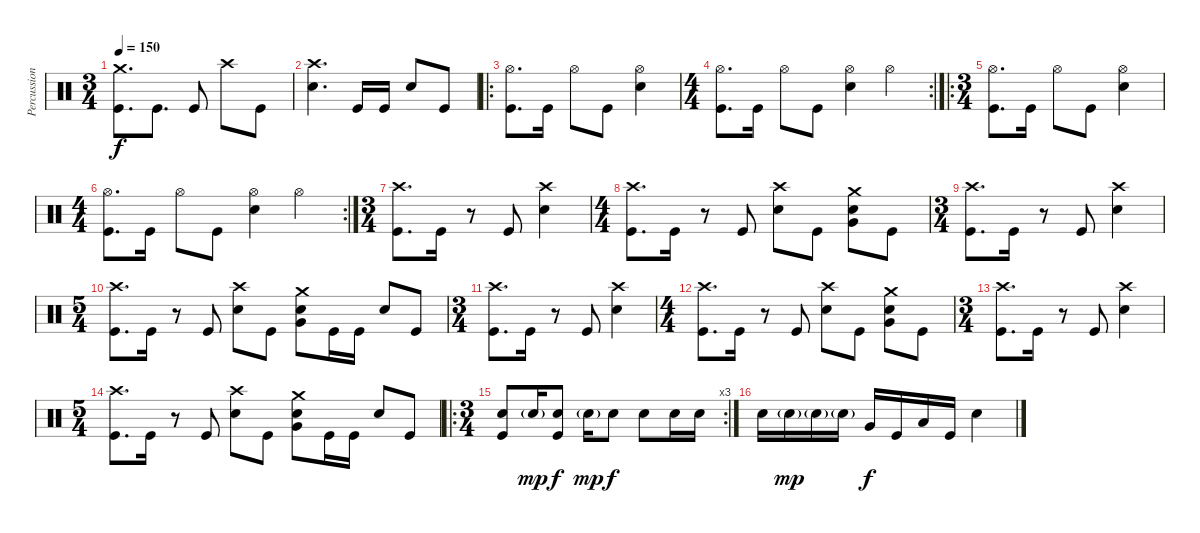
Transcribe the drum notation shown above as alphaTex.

\track ("Percussion" "Percussion") {instrument percussion}
\staff {score}
\articulation defaults
\ts (3 4)
\tempo 150
\clef neutral
\ks c
("Crash medium (hit)" "Kick (hit)").8{d dy f} "Kick (hit)".8{d} "Kick (hit)".8 "Crash high (hit)".8 "Kick (hit)".8 |
("Crash high (hit)" "Snare (hit) 2").4{d} "Kick (hit)".16 "Kick (hit)".16 "Snare (hit) 2".8 "Kick (hit)".8 |
\ro
("Hi-Hat (open)" "Kick (hit)").8{d} "Kick (hit)".16 "Hi-Hat (open)".8 "Kick (hit)".8 ("Hi-Hat (open)" "Snare (hit) 2").4 |
\rc 2
\ts (4 4)
("Hi-Hat (open)" "Kick (hit)").8{d} "Kick (hit)".16 "Hi-Hat (open)".8 "Kick (hit)".8 ("Hi-Hat (open)" "Snare (hit) 2").4 "Hi-Hat (open)".4 |
\ro
\ts (3 4)
("Hi-Hat (open)" "Kick (hit)").8{d} "Kick (hit)".16 "Hi-Hat (open)".8 "Kick (hit)".8 ("Hi-Hat (open)" "Snare (hit) 2").4 |
\rc 2
\ts (4 4)
("Hi-Hat (open)" "Kick (hit)").8{d} "Kick (hit)".16 "Hi-Hat (open)".8 "Kick (hit)".8 ("Hi-Hat (open)" "Snare (hit) 2").4 "Hi-Hat (open)".4 |
\ts (3 4)
("Crash high (hit)" "Kick (hit)").8{d} "Kick (hit)".16 r.8 "Kick (hit)".8 ("Crash high (hit)" "Snare (hit) 2").4 |
\ts (4 4)
("Crash high (hit)" "Kick (hit)").8{d} "Kick (hit)".16 r.8 "Kick (hit)".8 ("Crash high (hit)" "Snare (hit) 2").8 "Kick (hit)".8 ("Crash medium (hit)" "Very Low Tom (hit)" "Snare (hit) 2").8 "Kick (hit)".8 |
\ts (3 4)
("Crash high (hit)" "Kick (hit)").8{d} "Kick (hit)".16 r.8 "Kick (hit)".8 ("Crash high (hit)" "Snare (hit) 2").4 |
\ts (5 4)
("Crash high (hit)" "Kick (hit)").8{d} "Kick (hit)".16 r.8 "Kick (hit)".8 ("Crash high (hit)" "Snare (hit) 2").8 "Kick (hit)".8 ("Crash medium (hit)" "Very Low Tom (hit)" "Snare (hit) 2").8 "Kick (hit)".16 "Kick (hit)".16 "Snare (hit) 2".8 "Kick (hit)".8 |
\ts (3 4)
("Crash high (hit)" "Kick (hit)").8{d} "Kick (hit)".16 r.8 "Kick (hit)".8 ("Crash high (hit)" "Snare (hit) 2").4 |
\ts (4 4)
("Crash high (hit)" "Kick (hit)").8{d} "Kick (hit)".16 r.8 "Kick (hit)".8 ("Crash high (hit)" "Snare (hit) 2").8 "Kick (hit)".8 ("Crash medium (hit)" "Very Low Tom (hit)" "Snare (hit) 2").8 "Kick (hit)".8 |
\ts (3 4)
("Crash high (hit)" "Kick (hit)").8{d} "Kick (hit)".16 r.8 "Kick (hit)".8 ("Crash high (hit)" "Snare (hit) 2").4 |
\ts (5 4)
("Crash high (hit)" "Kick (hit)").8{d} "Kick (hit)".16 r.8 "Kick (hit)".8 ("Crash high (hit)" "Snare (hit) 2").8 "Kick (hit)".8 ("Crash medium (hit)" "Very Low Tom (hit)" "Snare (hit) 2").8 "Kick (hit)".16 "Kick (hit)".16 "Snare (hit) 2".8 "Kick (hit)".8 |
\ro
\rc 3
\ts (3 4)
("Snare (hit) 2" "Kick (hit)").8 "Snare (hit) 2"{g}.16{dy mp} ("Snare (hit) 2" "Kick (hit)").8{dy f} "Snare (hit) 2"{g}.16{dy mp} "Snare (hit) 2".8{dy f} "Snare (hit) 2".8 "Snare (hit) 2".16 "Snare (hit) 2".16 |
"Snare (hit) 2".16 "Snare (hit) 2"{g}.16{dy mp} "Snare (hit) 2"{g}.16 "Snare (hit) 2"{g}.16 "Very Low Tom (hit)".16{dy f} "Kick (hit)".16 "Low Floor Tom (hit)".16 "Kick (hit)".16 "Snare (hit) 2".4
